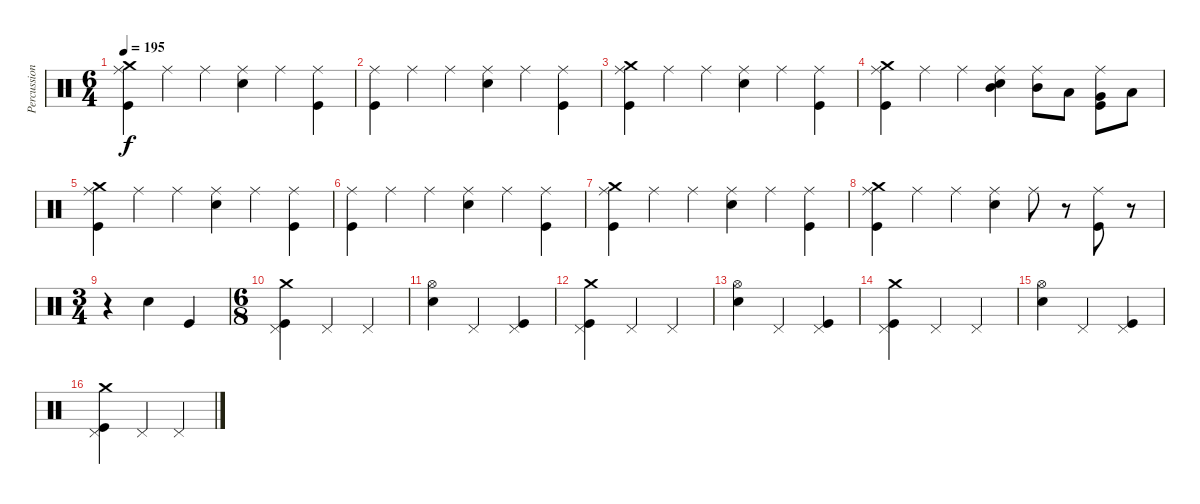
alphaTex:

\track ("Percussion" "Percussion") {instrument percussion}
\staff {score}
\articulation defaults
\ts (6 4)
\tempo 195
\clef neutral
\ks c
("Crash medium (hit)" "Ride (middle)" "Kick (hit)").4{dy f} "Ride (middle)".4 "Ride (middle)".4 ("Electric Snare (hit)" "Ride (middle)").4 "Ride (middle)".4 ("Ride (middle)" "Kick (hit)").4 |
("Ride (middle)" "Kick (hit)").4 "Ride (middle)".4 "Ride (middle)".4 ("Electric Snare (hit)" "Ride (middle)").4 "Ride (middle)".4 ("Ride (middle)" "Kick (hit)").4 |
("Crash medium (hit)" "Ride (middle)" "Kick (hit)").4 "Ride (middle)".4 "Ride (middle)".4 ("Electric Snare (hit)" "Ride (middle)").4 "Ride (middle)".4 ("Ride (middle)" "Kick (hit)").4 |
("Crash medium (hit)" "Ride (middle)" "Kick (hit)").4 "Ride (middle)".4 "Ride (middle)".4 ("Mid Tom (hit)" "Electric Snare (hit)" "Ride (middle)").4 ("Mid Tom (hit)" "Ride (middle)").8 "Low Tom (hit)".8 ("Very Low Tom (hit)" "Ride (middle)" "Kick (hit)").8 "Low Floor Tom (hit)".8 |
("Crash medium (hit)" "Ride (middle)" "Kick (hit)").4 "Ride (middle)".4 "Ride (middle)".4 ("Electric Snare (hit)" "Ride (middle)").4 "Ride (middle)".4 ("Ride (middle)" "Kick (hit)").4 |
("Ride (middle)" "Kick (hit)").4 "Ride (middle)".4 "Ride (middle)".4 ("Electric Snare (hit)" "Ride (middle)").4 "Ride (middle)".4 ("Ride (middle)" "Kick (hit)").4 |
("Crash medium (hit)" "Ride (middle)" "Kick (hit)").4 "Ride (middle)".4 "Ride (middle)".4 ("Electric Snare (hit)" "Ride (middle)").4 "Ride (middle)".4 ("Ride (middle)" "Kick (hit)").4 |
("Crash medium (hit)" "Ride (middle)" "Kick (hit)").4 "Ride (middle)".4 "Ride (middle)".4 ("Electric Snare (hit)" "Ride (middle)").4 "Ride (middle)".8 r.8 ("Ride (middle)" "Kick (hit)").8 r.8 |
\ts (3 4)
r.4 "Electric Snare (hit)".4 "Kick (hit)".4 |
\ts (6 8)
("Crash medium (hit)" "Pedal Hi-Hat (hit)" "Kick (hit)").4 "Pedal Hi-Hat (hit)".4 "Pedal Hi-Hat (hit)".4 |
("Hi-Hat (open)" "Electric Snare (hit)").4 "Pedal Hi-Hat (hit)".4 ("Pedal Hi-Hat (hit)" "Kick (hit)").4 |
("Crash medium (hit)" "Pedal Hi-Hat (hit)" "Kick (hit)").4 "Pedal Hi-Hat (hit)".4 "Pedal Hi-Hat (hit)".4 |
("Hi-Hat (open)" "Electric Snare (hit)").4 "Pedal Hi-Hat (hit)".4 ("Pedal Hi-Hat (hit)" "Kick (hit)").4 |
("Crash medium (hit)" "Pedal Hi-Hat (hit)" "Kick (hit)").4 "Pedal Hi-Hat (hit)".4 "Pedal Hi-Hat (hit)".4 |
("Hi-Hat (open)" "Electric Snare (hit)").4 "Pedal Hi-Hat (hit)".4 ("Pedal Hi-Hat (hit)" "Kick (hit)").4 |
("Crash medium (hit)" "Pedal Hi-Hat (hit)" "Kick (hit)").4 "Pedal Hi-Hat (hit)".4 "Pedal Hi-Hat (hit)".4
